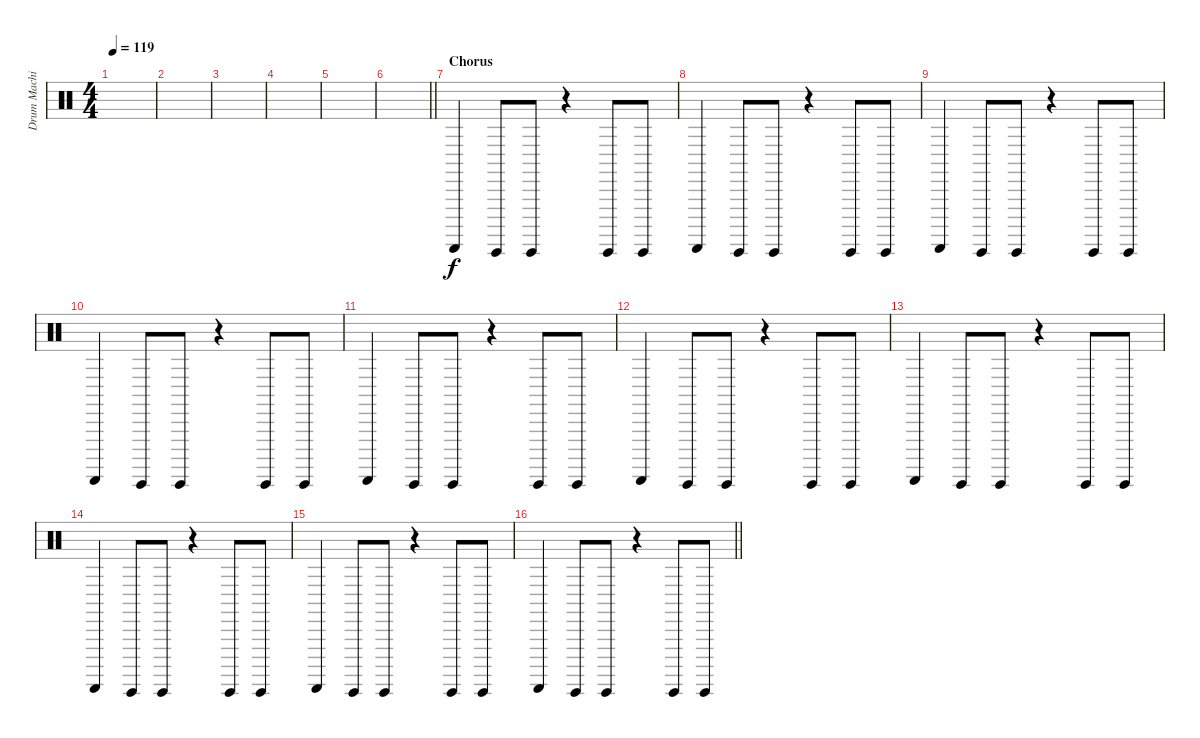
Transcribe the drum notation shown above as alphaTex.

\track ("Drum Machine" "Drum Machi") {instrument percussion}
\staff {score}
\articulation defaults
\ts (4 4)
\tempo 119
\clef neutral
\ks c
|
|
|
|
|
\barLineRight lightlight
|
\section ("" "Chorus")
"Guiro (scrap-return)".4 "Guiro (hit)".8 "Guiro (hit)".8 r.4 "Guiro (hit)".8 "Guiro (hit)".8 |
"Guiro (scrap-return)".4 "Guiro (hit)".8 "Guiro (hit)".8 r.4 "Guiro (hit)".8 "Guiro (hit)".8 |
"Guiro (scrap-return)".4 "Guiro (hit)".8 "Guiro (hit)".8 r.4 "Guiro (hit)".8 "Guiro (hit)".8 |
"Guiro (scrap-return)".4 "Guiro (hit)".8 "Guiro (hit)".8 r.4 "Guiro (hit)".8 "Guiro (hit)".8 |
"Guiro (scrap-return)".4 "Guiro (hit)".8 "Guiro (hit)".8 r.4 "Guiro (hit)".8 "Guiro (hit)".8 |
"Guiro (scrap-return)".4 "Guiro (hit)".8 "Guiro (hit)".8 r.4 "Guiro (hit)".8 "Guiro (hit)".8 |
"Guiro (scrap-return)".4 "Guiro (hit)".8 "Guiro (hit)".8 r.4 "Guiro (hit)".8 "Guiro (hit)".8 |
"Guiro (scrap-return)".4 "Guiro (hit)".8 "Guiro (hit)".8 r.4 "Guiro (hit)".8 "Guiro (hit)".8 |
"Guiro (scrap-return)".4 "Guiro (hit)".8 "Guiro (hit)".8 r.4 "Guiro (hit)".8 "Guiro (hit)".8 |
\barLineRight lightlight "Guiro (scrap-return)".4 "Guiro (hit)".8 "Guiro (hit)".8
r.4 "Guiro (hit)".8 "Guiro (hit)".8
